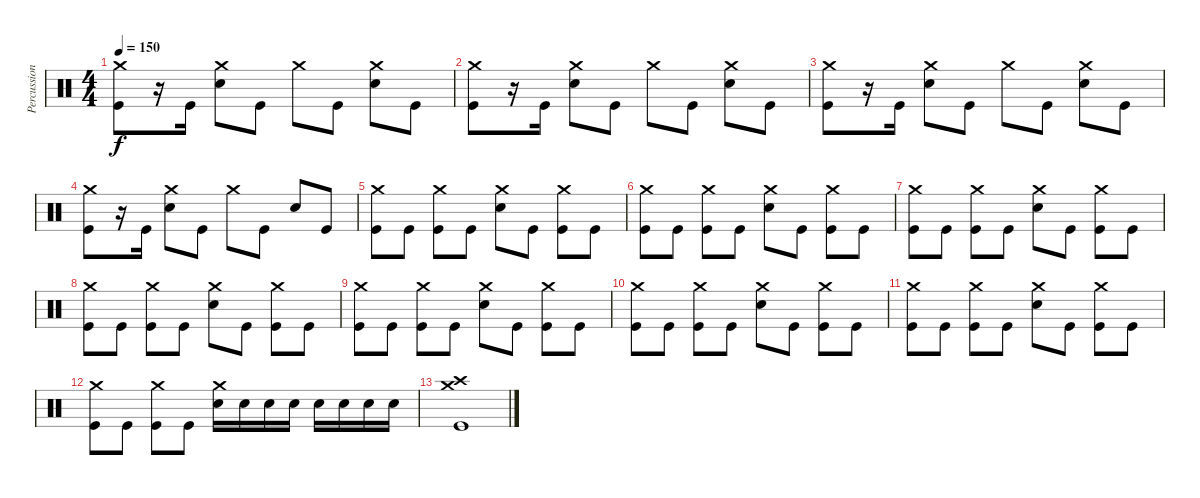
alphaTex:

\track ("Percussion" "Percussion") {instrument percussion}
\staff {score}
\articulation defaults
\ts (4 4)
\tempo 150
\clef neutral
\ks c
("Crash medium (hit)" "Kick (hit)").8{dy f} r.16 "Kick (hit)".16 ("Crash medium (hit)" "Electric Snare (hit)").8 "Kick (hit)".8 "Crash medium (hit)".8 "Kick (hit)".8 ("Crash medium (hit)" "Electric Snare (hit)").8 "Kick (hit)".8 |
("Crash medium (hit)" "Kick (hit)").8 r.16 "Kick (hit)".16 ("Crash medium (hit)" "Electric Snare (hit)").8 "Kick (hit)".8 "Crash medium (hit)".8 "Kick (hit)".8 ("Crash medium (hit)" "Electric Snare (hit)").8 "Kick (hit)".8 |
("Crash medium (hit)" "Kick (hit)").8 r.16 "Kick (hit)".16 ("Crash medium (hit)" "Electric Snare (hit)").8 "Kick (hit)".8 "Crash medium (hit)".8 "Kick (hit)".8 ("Crash medium (hit)" "Electric Snare (hit)").8 "Kick (hit)".8 |
("Crash medium (hit)" "Kick (hit)").8 r.16 "Kick (hit)".16 ("Crash medium (hit)" "Electric Snare (hit)").8 "Kick (hit)".8 "Crash medium (hit)".8 "Kick (hit)".8 "Electric Snare (hit)".8 "Kick (hit)".8 |
("Crash medium (hit)" "Kick (hit)").8 "Kick (hit)".8 ("Crash medium (hit)" "Kick (hit)").8 "Kick (hit)".8 ("Crash medium (hit)" "Electric Snare (hit)").8 "Kick (hit)".8 ("Crash medium (hit)" "Kick (hit)").8 "Kick (hit)".8 |
("Crash medium (hit)" "Kick (hit)").8 "Kick (hit)".8 ("Crash medium (hit)" "Kick (hit)").8 "Kick (hit)".8 ("Crash medium (hit)" "Electric Snare (hit)").8 "Kick (hit)".8 ("Crash medium (hit)" "Kick (hit)").8 "Kick (hit)".8 |
("Crash medium (hit)" "Kick (hit)").8 "Kick (hit)".8 ("Crash medium (hit)" "Kick (hit)").8 "Kick (hit)".8 ("Crash medium (hit)" "Electric Snare (hit)").8 "Kick (hit)".8 ("Crash medium (hit)" "Kick (hit)").8 "Kick (hit)".8 |
("Crash medium (hit)" "Kick (hit)").8 "Kick (hit)".8 ("Crash medium (hit)" "Kick (hit)").8 "Kick (hit)".8 ("Crash medium (hit)" "Electric Snare (hit)").8 "Kick (hit)".8 ("Crash medium (hit)" "Kick (hit)").8 "Kick (hit)".8 |
("Crash medium (hit)" "Kick (hit)").8 "Kick (hit)".8 ("Crash medium (hit)" "Kick (hit)").8 "Kick (hit)".8 ("Crash medium (hit)" "Electric Snare (hit)").8 "Kick (hit)".8 ("Crash medium (hit)" "Kick (hit)").8 "Kick (hit)".8 |
("Crash medium (hit)" "Kick (hit)").8 "Kick (hit)".8 ("Crash medium (hit)" "Kick (hit)").8 "Kick (hit)".8 ("Crash medium (hit)" "Electric Snare (hit)").8 "Kick (hit)".8 ("Crash medium (hit)" "Kick (hit)").8 "Kick (hit)".8 |
("Crash medium (hit)" "Kick (hit)").8 "Kick (hit)".8 ("Crash medium (hit)" "Kick (hit)").8 "Kick (hit)".8 ("Crash medium (hit)" "Electric Snare (hit)").8 "Kick (hit)".8 ("Crash medium (hit)" "Kick (hit)").8 "Kick (hit)".8 |
("Crash medium (hit)" "Kick (hit)").8 "Kick (hit)".8 ("Crash medium (hit)" "Kick (hit)").8 "Kick (hit)".8 ("Crash medium (hit)" "Electric Snare (hit)").16 "Electric Snare (hit)".16 "Electric Snare (hit)".16 "Electric Snare (hit)".16 "Electric Snare (hit)".16 "Electric Snare (hit)".16 "Electric Snare (hit)".16 "Electric Snare (hit)".16 |
("Crash high (hit)" "Crash medium (hit)" "Kick (hit)").1
